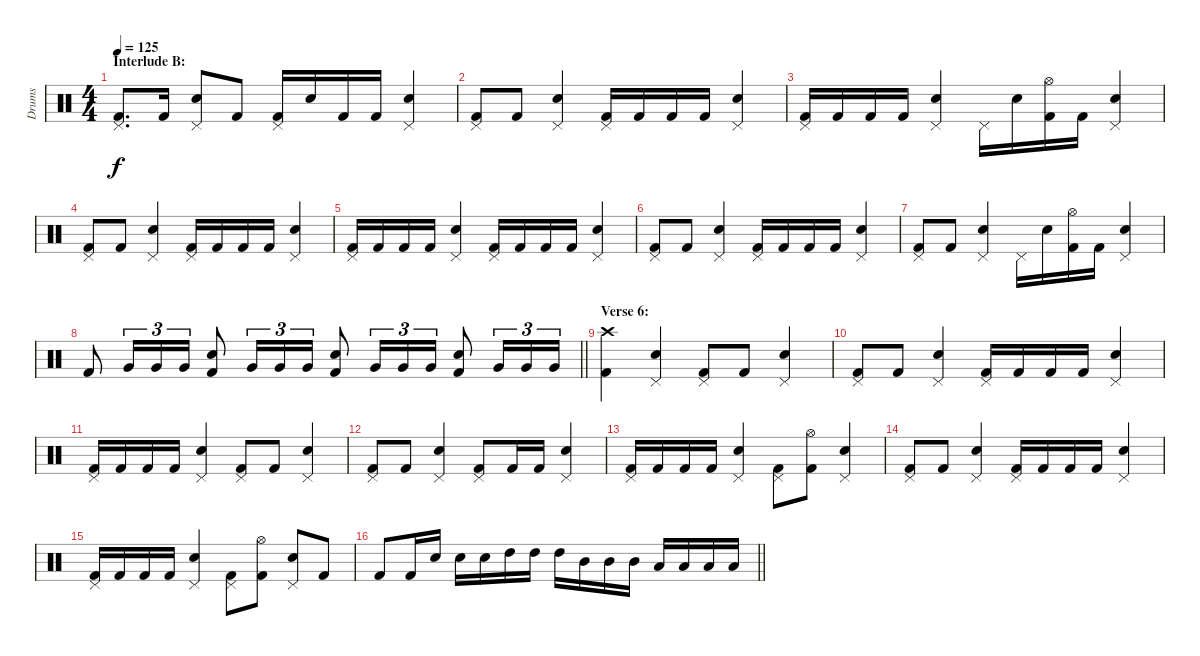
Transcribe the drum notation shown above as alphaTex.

\track ("Drums" "Drums") {instrument percussion}
\staff {score}
\articulation defaults
\ts (4 4)
\section ("" "Interlude B:")
\tempo 125
\clef neutral
\ks c
("Pedal Hi-Hat (hit)" "Kick (hit) 2").8{d dy f} "Kick (hit) 2".16 ("Pedal Hi-Hat (hit)" "Electric Snare (hit)").8 "Kick (hit) 2".8 ("Pedal Hi-Hat (hit)" "Kick (hit) 2").16 "Electric Snare (hit)".16 "Kick (hit) 2".16 "Kick (hit) 2".16 ("Pedal Hi-Hat (hit)" "Electric Snare (hit)").4 |
("Pedal Hi-Hat (hit)" "Kick (hit) 2").8 "Kick (hit) 2".8 ("Pedal Hi-Hat (hit)" "Electric Snare (hit)").4 ("Pedal Hi-Hat (hit)" "Kick (hit) 2").16 "Kick (hit) 2".16 "Kick (hit) 2".16 "Kick (hit) 2".16 ("Pedal Hi-Hat (hit)" "Electric Snare (hit)").4 |
("Pedal Hi-Hat (hit)" "Kick (hit) 2").16 "Kick (hit) 2".16 "Kick (hit) 2".16 "Kick (hit) 2".16 ("Pedal Hi-Hat (hit)" "Electric Snare (hit)").4 "Pedal Hi-Hat (hit)".16 "Electric Snare (hit)".16 ("Hi-Hat (open)" "Kick (hit) 2").16 "Kick (hit) 2".16 ("Pedal Hi-Hat (hit)" "Electric Snare (hit)").4 |
("Pedal Hi-Hat (hit)" "Kick (hit) 2").8 "Kick (hit) 2".8 ("Pedal Hi-Hat (hit)" "Electric Snare (hit)").4 ("Pedal Hi-Hat (hit)" "Kick (hit) 2").16 "Kick (hit) 2".16 "Kick (hit) 2".16 "Kick (hit) 2".16 ("Pedal Hi-Hat (hit)" "Electric Snare (hit)").4 |
("Pedal Hi-Hat (hit)" "Kick (hit) 2").16 "Kick (hit) 2".16 "Kick (hit) 2".16 "Kick (hit) 2".16 ("Pedal Hi-Hat (hit)" "Electric Snare (hit)").4 ("Pedal Hi-Hat (hit)" "Kick (hit) 2").16 "Kick (hit) 2".16 "Kick (hit) 2".16 "Kick (hit) 2".16 ("Pedal Hi-Hat (hit)" "Electric Snare (hit)").4 |
("Pedal Hi-Hat (hit)" "Kick (hit) 2").8 "Kick (hit) 2".8 ("Pedal Hi-Hat (hit)" "Electric Snare (hit)").4 ("Pedal Hi-Hat (hit)" "Kick (hit) 2").16 "Kick (hit) 2".16 "Kick (hit) 2".16 "Kick (hit) 2".16 ("Pedal Hi-Hat (hit)" "Electric Snare (hit)").4 |
("Pedal Hi-Hat (hit)" "Kick (hit) 2").8 "Kick (hit) 2".8 ("Pedal Hi-Hat (hit)" "Electric Snare (hit)").4 "Pedal Hi-Hat (hit)".16 "Electric Snare (hit)".16 ("Hi-Hat (open)" "Kick (hit) 2").16 "Kick (hit) 2".16 ("Pedal Hi-Hat (hit)" "Electric Snare (hit)").4 |
\barLineRight lightlight "Kick (hit) 2".8 "Very Low Tom (hit)".16{tu (3 2)} "Very Low Tom (hit)".16{tu (3 2)} "Very Low Tom (hit)".16{tu (3 2)}
("Electric Snare (hit)" "Kick (hit) 2").8 "Very Low Tom (hit)".16{tu (3 2)} "Very Low Tom (hit)".16{tu (3 2)} "Very Low Tom (hit)".16{tu (3 2)} ("Electric Snare (hit)" "Kick (hit) 2").8 "Very Low Tom (hit)".16{tu (3 2)} "Very Low Tom (hit)".16{tu (3 2)} "Very Low Tom (hit)".16{tu (3 2)} ("Electric Snare (hit)" "Kick (hit) 2").8 "Very Low Tom (hit)".16{tu (3 2)} "Very Low Tom (hit)".16{tu (3 2)} "Very Low Tom (hit)".16{tu (3 2)} |
\section ("" "Verse 6:")
("Crash high (hit)" "Kick (hit) 2").4 ("Pedal Hi-Hat (hit)" "Electric Snare (hit)").4 ("Pedal Hi-Hat (hit)" "Kick (hit) 2").8 "Kick (hit) 2".8 ("Pedal Hi-Hat (hit)" "Electric Snare (hit)").4 |
("Pedal Hi-Hat (hit)" "Kick (hit) 2").8 "Kick (hit) 2".8 ("Pedal Hi-Hat (hit)" "Electric Snare (hit)").4 ("Pedal Hi-Hat (hit)" "Kick (hit) 2").16 "Kick (hit) 2".16 "Kick (hit) 2".16 "Kick (hit) 2".16 ("Pedal Hi-Hat (hit)" "Electric Snare (hit)").4 |
("Pedal Hi-Hat (hit)" "Kick (hit) 2").16 "Kick (hit) 2".16 "Kick (hit) 2".16 "Kick (hit) 2".16 ("Pedal Hi-Hat (hit)" "Electric Snare (hit)").4 ("Pedal Hi-Hat (hit)" "Kick (hit) 2").8 "Kick (hit) 2".8 ("Pedal Hi-Hat (hit)" "Electric Snare (hit)").4 |
("Pedal Hi-Hat (hit)" "Kick (hit) 2").8 "Kick (hit) 2".8 ("Pedal Hi-Hat (hit)" "Electric Snare (hit)").4 ("Pedal Hi-Hat (hit)" "Kick (hit) 2").8 "Kick (hit) 2".16 "Kick (hit) 2".16 ("Pedal Hi-Hat (hit)" "Electric Snare (hit)").4 |
("Pedal Hi-Hat (hit)" "Kick (hit) 2").16 "Kick (hit) 2".16 "Kick (hit) 2".16 "Kick (hit) 2".16 ("Pedal Hi-Hat (hit)" "Electric Snare (hit)").4 ("Pedal Hi-Hat (hit)" "Kick (hit) 2").8 ("Hi-Hat (open)" "Kick (hit) 2").8 ("Pedal Hi-Hat (hit)" "Electric Snare (hit)").4 |
("Pedal Hi-Hat (hit)" "Kick (hit) 2").8 "Kick (hit) 2".8 ("Pedal Hi-Hat (hit)" "Electric Snare (hit)").4 ("Pedal Hi-Hat (hit)" "Kick (hit) 2").16 "Kick (hit) 2".16 "Kick (hit) 2".16 "Kick (hit) 2".16 ("Pedal Hi-Hat (hit)" "Electric Snare (hit)").4 |
("Pedal Hi-Hat (hit)" "Kick (hit) 2").16 "Kick (hit) 2".16 "Kick (hit) 2".16 "Kick (hit) 2".16 ("Pedal Hi-Hat (hit)" "Electric Snare (hit)").4 ("Pedal Hi-Hat (hit)" "Kick (hit) 2").8 ("Hi-Hat (open)" "Kick (hit) 2").8 ("Pedal Hi-Hat (hit)" "Electric Snare (hit)").8 "Kick (hit) 2".8 |
\barLineRight lightlight "Kick (hit) 2".8 "Kick (hit) 2".16 "Electric Snare (hit)".16 "Electric Snare (hit)".16 "Electric Snare (hit)".16 "High Tom (hit)".16 "High Tom (hit)".16 "High Tom (hit)".16 "Mid Tom (hit)".16 "Mid Tom (hit)".16 "Mid Tom (hit)".16 "Low Tom (hit)".16 "Low Tom (hit)".16 "Low Tom (hit)".16 "Low Tom (hit)".16
